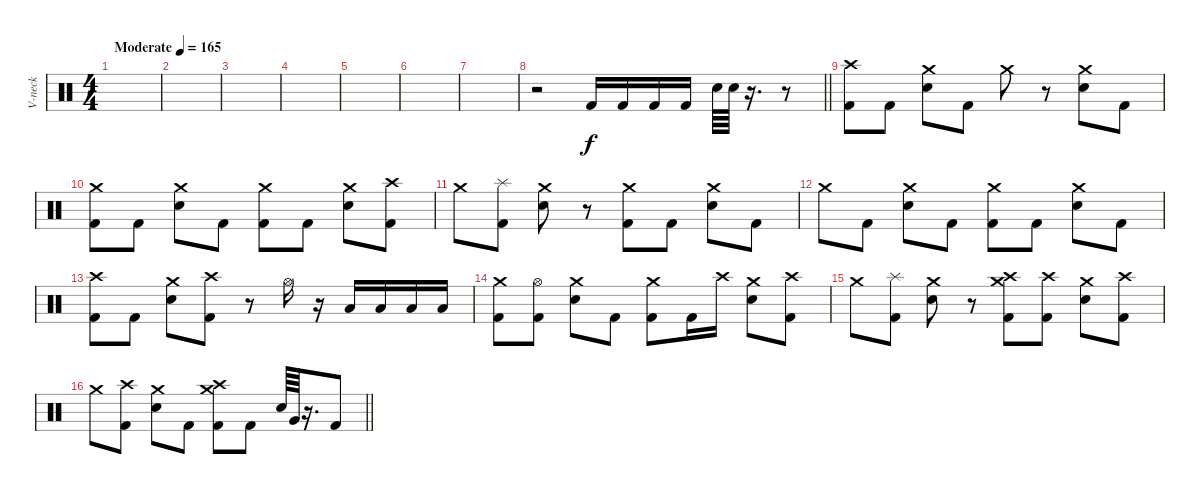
\track ("V-neck" "V-neck") {instrument percussion}
\staff {score}
\articulation defaults
\ts (4 4)
\section ("" "")
\tempo (165 "Moderate")
\clef neutral
\ks c
|
|
|
|
|
|
|
\barLineRight lightlight
r.2 "Kick (hit) 2".16 "Kick (hit) 2".16 "Kick (hit) 2".16 "Kick (hit) 2".16 "Electric Snare (hit)".64 "Electric Snare (hit)".64 r.16{d} r.8 |
\section ("" "")
("Crash high (hit)" "Kick (hit) 2").8 "Kick (hit) 2".8 ("Crash medium (hit)" "Electric Snare (hit)").8 "Kick (hit) 2".8 "Crash medium (hit)".8 r.8 ("Crash medium (hit)" "Electric Snare (hit)").8 "Kick (hit) 2".8 |
("Crash medium (hit)" "Kick (hit) 2").8 "Kick (hit) 2".8 ("Crash medium (hit)" "Electric Snare (hit)").8 "Kick (hit) 2".8 ("Crash medium (hit)" "Kick (hit) 2").8 "Kick (hit) 2".8 ("Crash medium (hit)" "Electric Snare (hit)").8 ("Crash high (hit)" "Kick (hit) 2").8 |
"Crash medium (hit)".8 ("Splash (hit)" "Kick (hit) 2").8 ("Crash medium (hit)" "Electric Snare (hit)").8 r.8 ("Crash medium (hit)" "Kick (hit) 2").8 "Kick (hit) 2".8 ("Crash medium (hit)" "Electric Snare (hit)").8 "Kick (hit) 2".8 |
"Crash medium (hit)".8 "Kick (hit) 2".8 ("Crash medium (hit)" "Electric Snare (hit)").8 "Kick (hit) 2".8 ("Crash medium (hit)" "Kick (hit) 2").8 "Kick (hit) 2".8 ("Crash medium (hit)" "Electric Snare (hit)").8 "Kick (hit) 2".8 |
("Crash high (hit)" "Kick (hit) 2").8 "Kick (hit) 2".8 ("Crash medium (hit)" "Electric Snare (hit)").8 ("Crash high (hit)" "Kick (hit) 2").8 r.8 "Hi-Hat (open)".16 r.16 "Low Tom (hit)".16 "Low Tom (hit)".16 "Low Tom (hit)".16 "Low Tom (hit)".16 |
("Crash medium (hit)" "Kick (hit) 2").8 ("Hi-Hat (open)" "Kick (hit) 2").8 ("Crash medium (hit)" "Electric Snare (hit)").8 "Kick (hit) 2".8 ("Crash medium (hit)" "Kick (hit) 2").8 "Kick (hit) 2".16 "Crash high (hit)".16 ("Crash medium (hit)" "Electric Snare (hit)").8 ("Crash high (hit)" "Kick (hit) 2").8 |
"Crash medium (hit)".8 ("Splash (hit)" "Kick (hit) 2").8 ("Crash medium (hit)" "Electric Snare (hit)").8 r.8 ("Crash high (hit)" "Crash medium (hit)" "Kick (hit) 2").8 ("Crash high (hit)" "Kick (hit) 2").8 ("Crash medium (hit)" "Electric Snare (hit)").8 ("Crash high (hit)" "Kick (hit) 2").8 |
\barLineRight lightlight "Crash medium (hit)".8
("Crash high (hit)" "Kick (hit) 2").8 ("Crash medium (hit)" "Electric Snare (hit)").8 "Kick (hit) 2".8 ("Crash high (hit)" "Crash medium (hit)" "Kick (hit) 2").8 "Kick (hit) 2".8 "Electric Snare (hit)".64 "Very Low Tom (hit)".64 r.16{d} "Kick (hit) 2".8
